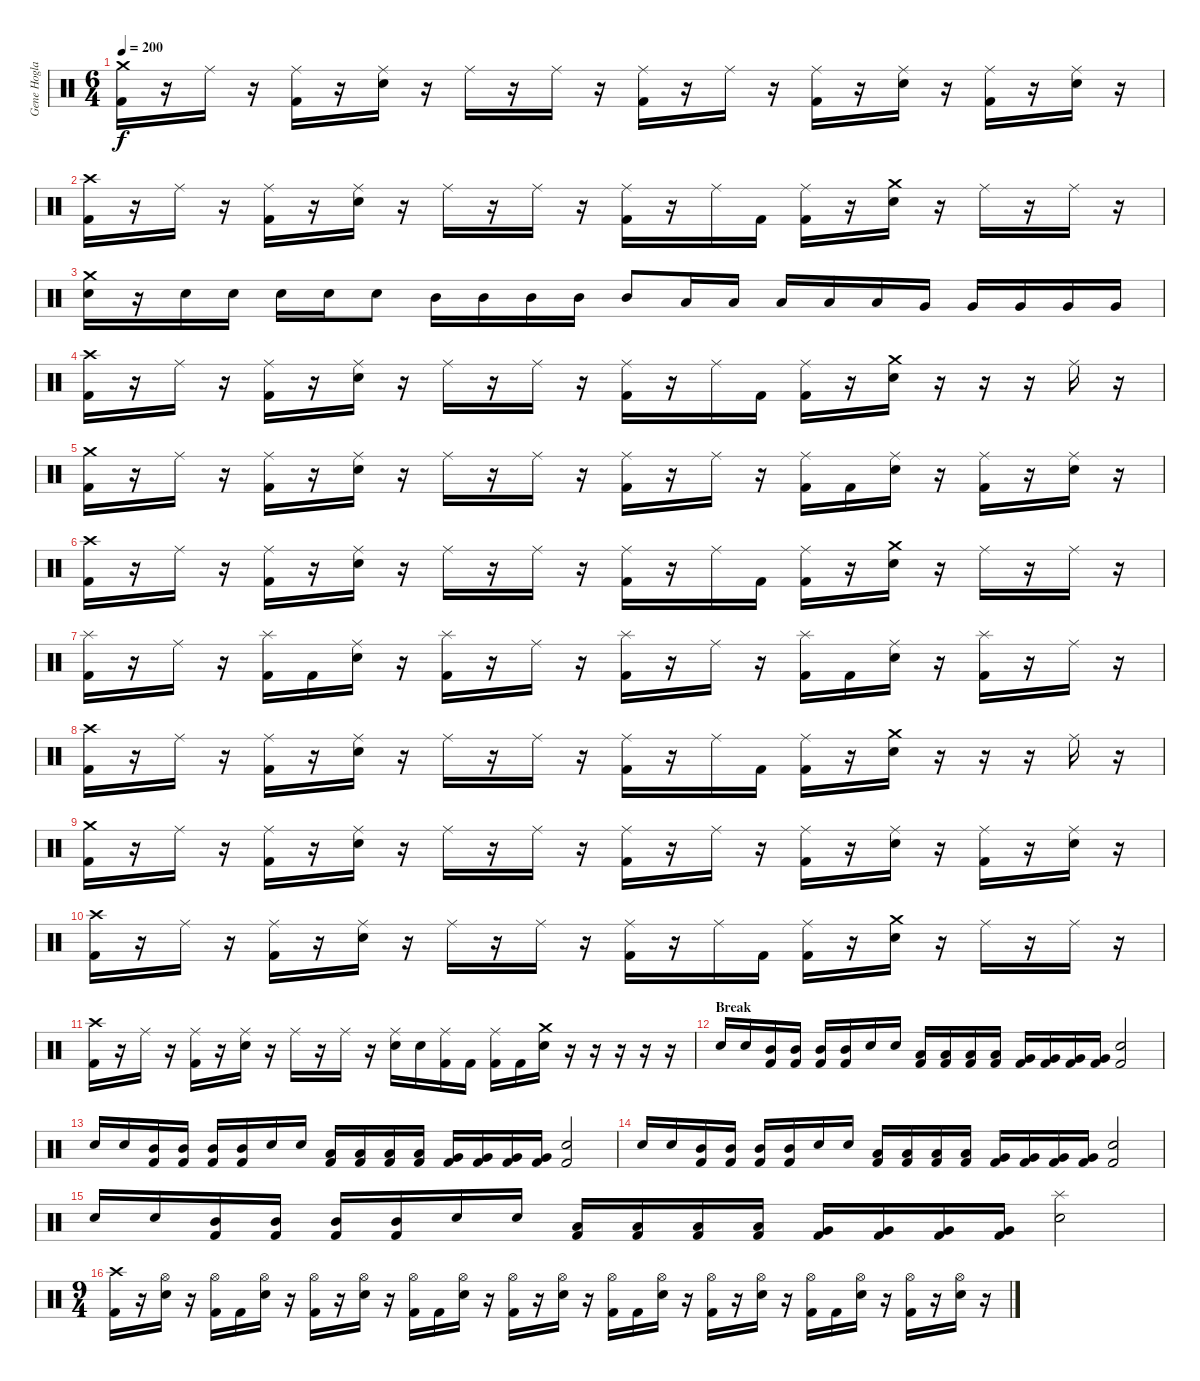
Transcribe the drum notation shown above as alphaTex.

\track ("Gene Hoglan" "Gene Hogla") {instrument percussion}
\staff {score}
\articulation defaults
\ts (6 4)
\tempo 200
\clef neutral
\ks c
("Crash medium (hit)" "Kick (hit) 2").16{dy f} r.16 "Ride (middle)".16 r.16 ("Ride (middle)" "Kick (hit) 2").16 r.16 ("Ride (middle)" "Electric Snare (hit)").16 r.16 "Ride (middle)".16 r.16 "Ride (middle)".16 r.16 ("Ride (middle)" "Kick (hit) 2").16 r.16 "Ride (middle)".16 r.16 ("Ride (middle)" "Kick (hit) 2").16 r.16 ("Ride (middle)" "Electric Snare (hit)").16 r.16 ("Ride (middle)" "Kick (hit) 2").16 r.16 ("Ride (middle)" "Electric Snare (hit)").16 r.16 |
("Crash high (hit)" "Kick (hit) 2").16 r.16 "Ride (middle)".16 r.16 ("Ride (middle)" "Kick (hit) 2").16 r.16 ("Ride (middle)" "Electric Snare (hit)").16 r.16 "Ride (middle)".16 r.16 "Ride (middle)".16 r.16 ("Ride (middle)" "Kick (hit) 2").16 r.16 "Ride (middle)".16 "Kick (hit) 2".16 ("Ride (middle)" "Kick (hit) 2").16 r.16 ("Crash medium (hit)" "Electric Snare (hit)").16 r.16 "Ride (middle)".16 r.16 "Ride (middle)".16 r.16 |
("Crash medium (hit)" "Electric Snare (hit)").16 r.16 "Electric Snare (hit)".16 "Electric Snare (hit)".16 "Electric Snare (hit)".16 "Electric Snare (hit)".16 "Electric Snare (hit)".8 "Mid Tom (hit)".16 "Mid Tom (hit)".16 "Mid Tom (hit)".16 "Mid Tom (hit)".16 "Mid Tom (hit)".8 "Low Tom (hit)".16 "Low Tom (hit)".16 "Low Tom (hit)".16 "Low Tom (hit)".16 "Low Tom (hit)".16 "Very Low Tom (hit)".16 "Very Low Tom (hit)".16 "Very Low Tom (hit)".16 "Very Low Tom (hit)".16 "Very Low Tom (hit)".16 |
("Crash high (hit)" "Kick (hit) 2").16 r.16 "Ride (middle)".16 r.16 ("Ride (middle)" "Kick (hit) 2").16 r.16 ("Ride (middle)" "Electric Snare (hit)").16 r.16 "Ride (middle)".16 r.16 "Ride (middle)".16 r.16 ("Ride (middle)" "Kick (hit) 2").16 r.16 "Ride (middle)".16 "Kick (hit) 2".16 ("Ride (middle)" "Kick (hit) 2").16 r.16 ("Crash medium (hit)" "Electric Snare (hit)").16 r.16 r.16 r.16 "Ride (middle)".16 r.16 |
("Crash medium (hit)" "Kick (hit) 2").16 r.16 "Ride (middle)".16 r.16 ("Ride (middle)" "Kick (hit) 2").16 r.16 ("Ride (middle)" "Electric Snare (hit)").16 r.16 "Ride (middle)".16 r.16 "Ride (middle)".16 r.16 ("Ride (middle)" "Kick (hit) 2").16 r.16 "Ride (middle)".16 r.16 ("Ride (middle)" "Kick (hit) 2").16 "Kick (hit) 2".16 ("Ride (middle)" "Electric Snare (hit)").16 r.16 ("Ride (middle)" "Kick (hit) 2").16 r.16 ("Ride (middle)" "Electric Snare (hit)").16 r.16 |
("Crash high (hit)" "Kick (hit) 2").16 r.16 "Ride (middle)".16 r.16 ("Ride (middle)" "Kick (hit) 2").16 r.16 ("Ride (middle)" "Electric Snare (hit)").16 r.16 "Ride (middle)".16 r.16 "Ride (middle)".16 r.16 ("Ride (middle)" "Kick (hit) 2").16 r.16 "Ride (middle)".16 "Kick (hit) 2".16 ("Ride (middle)" "Kick (hit) 2").16 r.16 ("Crash medium (hit)" "Electric Snare (hit)").16 r.16 "Ride (middle)".16 r.16 "Ride (middle)".16 r.16 |
("Splash (hit)" "Kick (hit) 2").16 r.16 "Ride (middle)".16 r.16 ("Splash (hit)" "Kick (hit) 2").16 "Kick (hit) 2".16 ("Ride (middle)" "Electric Snare (hit)").16 r.16 ("Splash (hit)" "Kick (hit) 2").16 r.16 "Ride (middle)".16 r.16 ("Splash (hit)" "Kick (hit) 2").16 r.16 "Ride (middle)".16 r.16 ("Splash (hit)" "Kick (hit) 2").16 "Kick (hit) 2".16 ("Ride (middle)" "Electric Snare (hit)").16 r.16 ("Splash (hit)" "Kick (hit) 2").16 r.16 "Ride (middle)".16 r.16 |
("Crash high (hit)" "Kick (hit) 2").16 r.16 "Ride (middle)".16 r.16 ("Ride (middle)" "Kick (hit) 2").16 r.16 ("Ride (middle)" "Electric Snare (hit)").16 r.16 "Ride (middle)".16 r.16 "Ride (middle)".16 r.16 ("Ride (middle)" "Kick (hit) 2").16 r.16 "Ride (middle)".16 "Kick (hit) 2".16 ("Ride (middle)" "Kick (hit) 2").16 r.16 ("Crash medium (hit)" "Electric Snare (hit)").16 r.16 r.16 r.16 "Ride (middle)".16 r.16 |
("Crash medium (hit)" "Kick (hit) 2").16 r.16 "Ride (middle)".16 r.16 ("Ride (middle)" "Kick (hit) 2").16 r.16 ("Ride (middle)" "Electric Snare (hit)").16 r.16 "Ride (middle)".16 r.16 "Ride (middle)".16 r.16 ("Ride (middle)" "Kick (hit) 2").16 r.16 "Ride (middle)".16 r.16 ("Ride (middle)" "Kick (hit) 2").16 r.16 ("Ride (middle)" "Electric Snare (hit)").16 r.16 ("Ride (middle)" "Kick (hit) 2").16 r.16 ("Ride (middle)" "Electric Snare (hit)").16 r.16 |
("Crash high (hit)" "Kick (hit) 2").16 r.16 "Ride (middle)".16 r.16 ("Ride (middle)" "Kick (hit) 2").16 r.16 ("Ride (middle)" "Electric Snare (hit)").16 r.16 "Ride (middle)".16 r.16 "Ride (middle)".16 r.16 ("Ride (middle)" "Kick (hit) 2").16 r.16 "Ride (middle)".16 "Kick (hit) 2".16 ("Ride (middle)" "Kick (hit) 2").16 r.16 ("Crash medium (hit)" "Electric Snare (hit)").16 r.16 "Ride (middle)".16 r.16 "Ride (middle)".16 r.16 |
("Crash high (hit)" "Kick (hit) 2").16 r.16 "Ride (middle)".16 r.16 ("Ride (middle)" "Kick (hit) 2").16 r.16 ("Ride (middle)" "Electric Snare (hit)").16 r.16 "Ride (middle)".16 r.16 "Ride (middle)".16 r.16 ("Ride (middle)" "Electric Snare (hit)").16 "Electric Snare (hit)".16 ("Ride (middle)" "Kick (hit) 2").16 "Kick (hit) 2".16 ("Ride (middle)" "Kick (hit) 2").16 "Kick (hit) 2".16 ("Crash medium (hit)" "Electric Snare (hit)").16 r.16 r.16 r.16 r.16 r.16 |
\section ("" "Break")
"Electric Snare (hit)".16 "Electric Snare (hit)".16 ("Mid Tom (hit)" "Kick (hit) 2").16 ("Mid Tom (hit)" "Kick (hit) 2").16 ("Mid Tom (hit)" "Kick (hit) 2").16 ("Mid Tom (hit)" "Kick (hit) 2").16 "Electric Snare (hit)".16 "Electric Snare (hit)".16 ("Low Tom (hit)" "Kick (hit) 2").16 ("Low Tom (hit)" "Kick (hit) 2").16 ("Low Tom (hit)" "Kick (hit) 2").16 ("Low Tom (hit)" "Kick (hit) 2").16 ("Very Low Tom (hit)" "Kick (hit) 2").16 ("Very Low Tom (hit)" "Kick (hit) 2").16 ("Very Low Tom (hit)" "Kick (hit) 2").16 ("Very Low Tom (hit)" "Kick (hit) 2").16 ("Electric Snare (hit)" "Kick (hit) 2").2 |
"Electric Snare (hit)".16 "Electric Snare (hit)".16 ("Mid Tom (hit)" "Kick (hit) 2").16 ("Mid Tom (hit)" "Kick (hit) 2").16 ("Mid Tom (hit)" "Kick (hit) 2").16 ("Mid Tom (hit)" "Kick (hit) 2").16 "Electric Snare (hit)".16 "Electric Snare (hit)".16 ("Low Tom (hit)" "Kick (hit) 2").16 ("Low Tom (hit)" "Kick (hit) 2").16 ("Low Tom (hit)" "Kick (hit) 2").16 ("Low Tom (hit)" "Kick (hit) 2").16 ("Very Low Tom (hit)" "Kick (hit) 2").16 ("Very Low Tom (hit)" "Kick (hit) 2").16 ("Very Low Tom (hit)" "Kick (hit) 2").16 ("Very Low Tom (hit)" "Kick (hit) 2").16 ("Electric Snare (hit)" "Kick (hit) 2").2 |
"Electric Snare (hit)".16 "Electric Snare (hit)".16 ("Mid Tom (hit)" "Kick (hit) 2").16 ("Mid Tom (hit)" "Kick (hit) 2").16 ("Mid Tom (hit)" "Kick (hit) 2").16 ("Mid Tom (hit)" "Kick (hit) 2").16 "Electric Snare (hit)".16 "Electric Snare (hit)".16 ("Low Tom (hit)" "Kick (hit) 2").16 ("Low Tom (hit)" "Kick (hit) 2").16 ("Low Tom (hit)" "Kick (hit) 2").16 ("Low Tom (hit)" "Kick (hit) 2").16 ("Very Low Tom (hit)" "Kick (hit) 2").16 ("Very Low Tom (hit)" "Kick (hit) 2").16 ("Very Low Tom (hit)" "Kick (hit) 2").16 ("Very Low Tom (hit)" "Kick (hit) 2").16 ("Electric Snare (hit)" "Kick (hit) 2").2 |
"Electric Snare (hit)".16 "Electric Snare (hit)".16 ("Mid Tom (hit)" "Kick (hit) 2").16 ("Mid Tom (hit)" "Kick (hit) 2").16 ("Mid Tom (hit)" "Kick (hit) 2").16 ("Mid Tom (hit)" "Kick (hit) 2").16 "Electric Snare (hit)".16 "Electric Snare (hit)".16 ("Low Tom (hit)" "Kick (hit) 2").16 ("Low Tom (hit)" "Kick (hit) 2").16 ("Low Tom (hit)" "Kick (hit) 2").16 ("Low Tom (hit)" "Kick (hit) 2").16 ("Very Low Tom (hit)" "Kick (hit) 2").16 ("Very Low Tom (hit)" "Kick (hit) 2").16 ("Very Low Tom (hit)" "Kick (hit) 2").16 ("Very Low Tom (hit)" "Kick (hit) 2").16 ("Splash (hit)" "Electric Snare (hit)").2 |
\ts (9 4)
("Crash high (hit)" "Kick (hit) 2").16 r.16 ("Hi-Hat (open)" "Electric Snare (hit)").16 r.16 ("Hi-Hat (open)" "Kick (hit) 2").16 "Kick (hit) 2".16 ("Hi-Hat (open)" "Electric Snare (hit)").16 r.16 ("Hi-Hat (open)" "Kick (hit) 2").16 r.16 ("Hi-Hat (open)" "Electric Snare (hit)").16 r.16 ("Hi-Hat (open)" "Kick (hit) 2").16 "Kick (hit) 2".16 ("Hi-Hat (open)" "Electric Snare (hit)").16 r.16 ("Hi-Hat (open)" "Kick (hit) 2").16 r.16 ("Hi-Hat (open)" "Electric Snare (hit)").16 r.16 ("Hi-Hat (open)" "Kick (hit) 2").16 "Kick (hit) 2".16 ("Hi-Hat (open)" "Electric Snare (hit)").16 r.16 ("Hi-Hat (open)" "Kick (hit) 2").16 r.16 ("Hi-Hat (open)" "Electric Snare (hit)").16 r.16 ("Hi-Hat (open)" "Kick (hit) 2").16 "Kick (hit) 2".16 ("Hi-Hat (open)" "Electric Snare (hit)").16 r.16 ("Hi-Hat (open)" "Kick (hit) 2").16 r.16 ("Hi-Hat (open)" "Electric Snare (hit)").16 r.16
